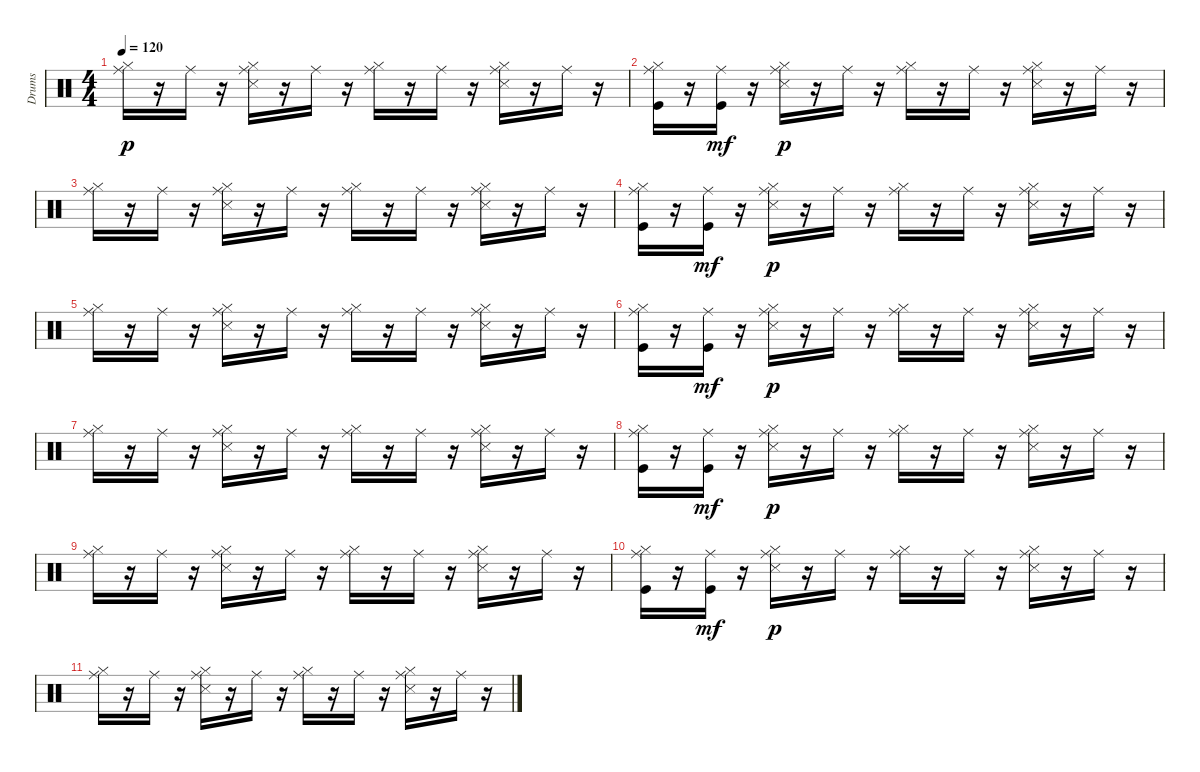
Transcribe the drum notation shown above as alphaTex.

\track ("Drums" "Drums") {instrument percussion}
\staff {score}
\articulation defaults
\ts (4 4)
\tempo 120
\clef neutral
\ks c
("Ride (middle)" "Hi-Hat (closed)").16{dy p} r.16 "Ride (middle)".16 r.16 ("Snare (side stick) 3" "Ride (middle)" "Hi-Hat (closed)").16 r.16 "Ride (middle)".16 r.16 ("Ride (middle)" "Hi-Hat (closed)").16 r.16 "Ride (middle)".16 r.16 ("Snare (side stick) 3" "Ride (middle)" "Hi-Hat (closed)").16 r.16 "Ride (middle)".16 r.16 |
("Ride (middle)" "Hi-Hat (closed)" "Kick (hit)").16 r.16 ("Ride (middle)" "Kick (hit)").16{dy mf} r.16 ("Snare (side stick) 3" "Ride (middle)" "Hi-Hat (closed)").16{dy p} r.16 "Ride (middle)".16 r.16 ("Ride (middle)" "Hi-Hat (closed)").16 r.16 "Ride (middle)".16 r.16 ("Snare (side stick) 3" "Ride (middle)" "Hi-Hat (closed)").16 r.16 "Ride (middle)".16 r.16 |
("Ride (middle)" "Hi-Hat (closed)").16 r.16 "Ride (middle)".16 r.16 ("Snare (side stick) 3" "Ride (middle)" "Hi-Hat (closed)").16 r.16 "Ride (middle)".16 r.16 ("Ride (middle)" "Hi-Hat (closed)").16 r.16 "Ride (middle)".16 r.16 ("Snare (side stick) 3" "Ride (middle)" "Hi-Hat (closed)").16 r.16 "Ride (middle)".16 r.16 |
("Ride (middle)" "Hi-Hat (closed)" "Kick (hit)").16 r.16 ("Ride (middle)" "Kick (hit)").16{dy mf} r.16 ("Snare (side stick) 3" "Ride (middle)" "Hi-Hat (closed)").16{dy p} r.16 "Ride (middle)".16 r.16 ("Ride (middle)" "Hi-Hat (closed)").16 r.16 "Ride (middle)".16 r.16 ("Snare (side stick) 3" "Ride (middle)" "Hi-Hat (closed)").16 r.16 "Ride (middle)".16 r.16 |
("Ride (middle)" "Hi-Hat (closed)").16 r.16 "Ride (middle)".16 r.16 ("Snare (side stick) 3" "Ride (middle)" "Hi-Hat (closed)").16 r.16 "Ride (middle)".16 r.16 ("Ride (middle)" "Hi-Hat (closed)").16 r.16 "Ride (middle)".16 r.16 ("Snare (side stick) 3" "Ride (middle)" "Hi-Hat (closed)").16 r.16 "Ride (middle)".16 r.16 |
("Ride (middle)" "Hi-Hat (closed)" "Kick (hit)").16 r.16 ("Ride (middle)" "Kick (hit)").16{dy mf} r.16 ("Snare (side stick) 3" "Ride (middle)" "Hi-Hat (closed)").16{dy p} r.16 "Ride (middle)".16 r.16 ("Ride (middle)" "Hi-Hat (closed)").16 r.16 "Ride (middle)".16 r.16 ("Snare (side stick) 3" "Ride (middle)" "Hi-Hat (closed)").16 r.16 "Ride (middle)".16 r.16 |
("Ride (middle)" "Hi-Hat (closed)").16 r.16 "Ride (middle)".16 r.16 ("Snare (side stick) 3" "Ride (middle)" "Hi-Hat (closed)").16 r.16 "Ride (middle)".16 r.16 ("Ride (middle)" "Hi-Hat (closed)").16 r.16 "Ride (middle)".16 r.16 ("Snare (side stick) 3" "Ride (middle)" "Hi-Hat (closed)").16 r.16 "Ride (middle)".16 r.16 |
("Ride (middle)" "Hi-Hat (closed)" "Kick (hit)").16{volume 3} r.16 ("Ride (middle)" "Kick (hit)").16{dy mf} r.16 ("Snare (side stick) 3" "Ride (middle)" "Hi-Hat (closed)").16{dy p} r.16 "Ride (middle)".16 r.16 ("Ride (middle)" "Hi-Hat (closed)").16 r.16 "Ride (middle)".16 r.16 ("Snare (side stick) 3" "Ride (middle)" "Hi-Hat (closed)").16 r.16 "Ride (middle)".16 r.16 |
("Ride (middle)" "Hi-Hat (closed)").16 r.16 "Ride (middle)".16 r.16 ("Snare (side stick) 3" "Ride (middle)" "Hi-Hat (closed)").16 r.16 "Ride (middle)".16 r.16 ("Ride (middle)" "Hi-Hat (closed)").16 r.16 "Ride (middle)".16 r.16 ("Snare (side stick) 3" "Ride (middle)" "Hi-Hat (closed)").16 r.16 "Ride (middle)".16 r.16 |
("Ride (middle)" "Hi-Hat (closed)" "Kick (hit)").16 r.16 ("Ride (middle)" "Kick (hit)").16{dy mf} r.16 ("Snare (side stick) 3" "Ride (middle)" "Hi-Hat (closed)").16{dy p} r.16 "Ride (middle)".16 r.16 ("Ride (middle)" "Hi-Hat (closed)").16 r.16 "Ride (middle)".16 r.16 ("Snare (side stick) 3" "Ride (middle)" "Hi-Hat (closed)").16 r.16 "Ride (middle)".16 r.16 |
("Ride (middle)" "Hi-Hat (closed)").16 r.16 "Ride (middle)".16 r.16 ("Snare (side stick) 3" "Ride (middle)" "Hi-Hat (closed)").16 r.16 "Ride (middle)".16 r.16 ("Ride (middle)" "Hi-Hat (closed)").16 r.16 "Ride (middle)".16 r.16 ("Snare (side stick) 3" "Ride (middle)" "Hi-Hat (closed)").16 r.16 "Ride (middle)".16 r.16
